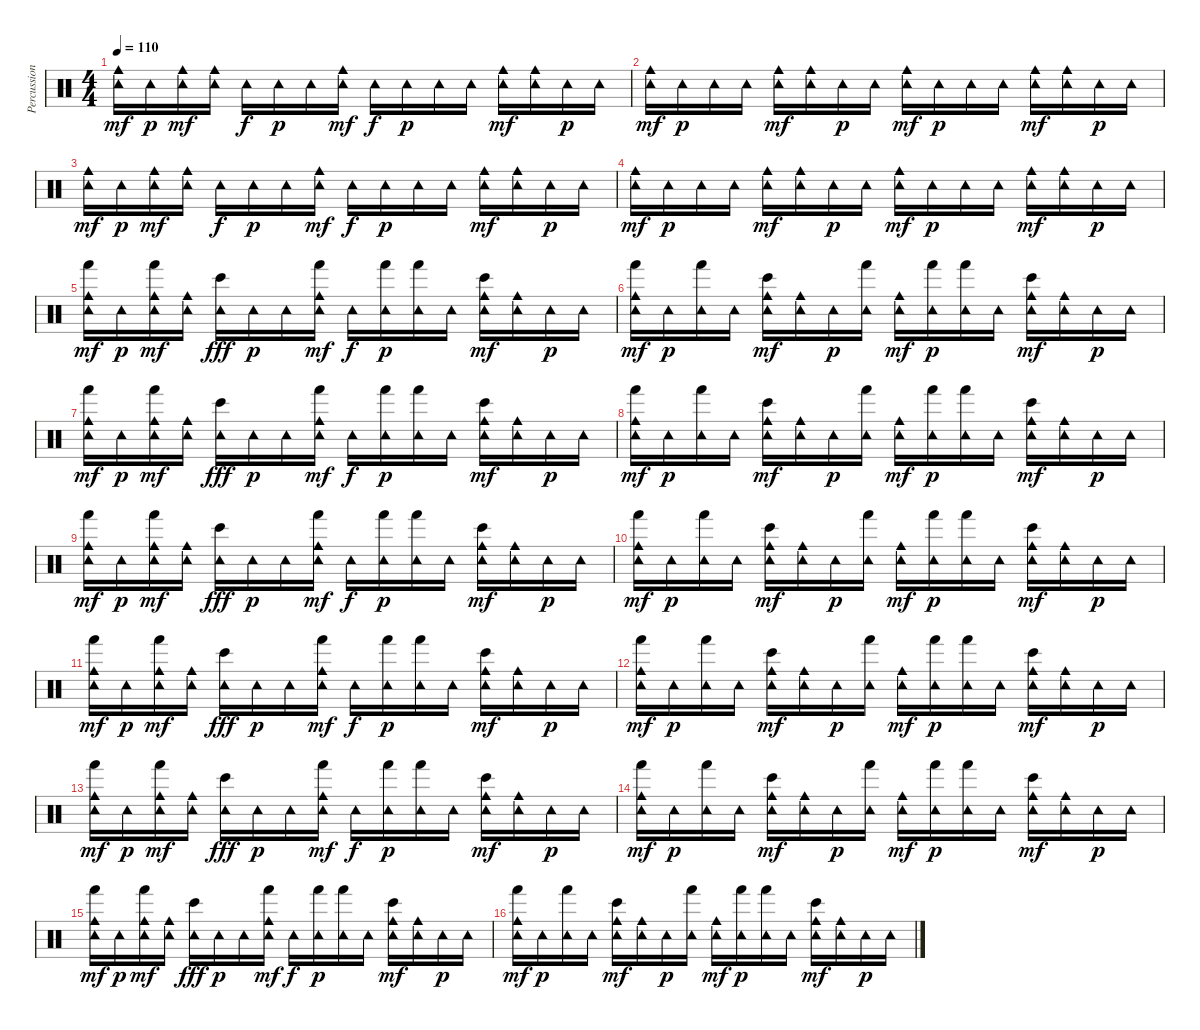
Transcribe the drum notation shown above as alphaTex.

\track ("Percussions" "Percussion") {instrument percussion}
\staff {score}
\articulation defaults
\ts (4 4)
\tempo 110
\clef neutral
\ks c
("Tambourine (hit)" "Cowbell medium (hit)").16{dy mf} "Tambourine (hit)".16{dy p} ("Tambourine (hit)" "Cowbell medium (hit)").16{dy mf} ("Tambourine (hit)" "Cowbell medium (hit)").16 "Tambourine (hit)".16{dy f} "Tambourine (hit)".16{dy p} "Tambourine (hit)".16 ("Tambourine (hit)" "Cowbell medium (hit)").16{dy mf} "Tambourine (hit)".16{dy f} "Tambourine (hit)".16{dy p} "Tambourine (hit)".16 "Tambourine (hit)".16 ("Tambourine (hit)" "Cowbell medium (hit)").16{dy mf} ("Tambourine (hit)" "Cowbell medium (hit)").16 "Tambourine (hit)".16{dy p} "Tambourine (hit)".16 |
("Tambourine (hit)" "Cowbell medium (hit)").16{dy mf} "Tambourine (hit)".16{dy p} "Tambourine (hit)".16 "Tambourine (hit)".16 ("Tambourine (hit)" "Cowbell medium (hit)").16{dy mf} ("Tambourine (hit)" "Cowbell medium (hit)").16 "Tambourine (hit)".16{dy p} "Tambourine (hit)".16 ("Tambourine (hit)" "Cowbell medium (hit)").16{dy mf} "Tambourine (hit)".16{dy p} "Tambourine (hit)".16 "Tambourine (hit)".16 ("Tambourine (hit)" "Cowbell medium (hit)").16{dy mf} ("Tambourine (hit)" "Cowbell medium (hit)").16 "Tambourine (hit)".16{dy p} "Tambourine (hit)".16 |
("Tambourine (hit)" "Cowbell medium (hit)").16{dy mf} "Tambourine (hit)".16{dy p} ("Tambourine (hit)" "Cowbell medium (hit)").16{dy mf} ("Tambourine (hit)" "Cowbell medium (hit)").16 "Tambourine (hit)".16{dy f} "Tambourine (hit)".16{dy p} "Tambourine (hit)".16 ("Tambourine (hit)" "Cowbell medium (hit)").16{dy mf} "Tambourine (hit)".16{dy f} "Tambourine (hit)".16{dy p} "Tambourine (hit)".16 "Tambourine (hit)".16 ("Tambourine (hit)" "Cowbell medium (hit)").16{dy mf} ("Tambourine (hit)" "Cowbell medium (hit)").16 "Tambourine (hit)".16{dy p} "Tambourine (hit)".16 |
("Tambourine (hit)" "Cowbell medium (hit)").16{dy mf} "Tambourine (hit)".16{dy p} "Tambourine (hit)".16 "Tambourine (hit)".16 ("Tambourine (hit)" "Cowbell medium (hit)").16{dy mf} ("Tambourine (hit)" "Cowbell medium (hit)").16 "Tambourine (hit)".16{dy p} "Tambourine (hit)".16 ("Tambourine (hit)" "Cowbell medium (hit)").16{dy mf} "Tambourine (hit)".16{dy p} "Tambourine (hit)".16 "Tambourine (hit)".16 ("Tambourine (hit)" "Cowbell medium (hit)").16{dy mf} ("Tambourine (hit)" "Cowbell medium (hit)").16 "Tambourine (hit)".16{dy p} "Tambourine (hit)".16 |
("Hand (hit)" "Tambourine (hit)" "Cowbell medium (hit)").16{dy mf} "Tambourine (hit)".16{dy p} ("Hand (hit)" "Tambourine (hit)" "Cowbell medium (hit)").16{dy mf} ("Tambourine (hit)" "Cowbell medium (hit)").16 ("Bongo High (hit)" "Tambourine (hit)").16{dy fff} "Tambourine (hit)".16{dy p} "Tambourine (hit)".16 ("Hand (hit)" "Tambourine (hit)" "Cowbell medium (hit)").16{dy mf} "Tambourine (hit)".16{dy f} ("Hand (hit)" "Tambourine (hit)").16{dy p} ("Hand (hit)" "Tambourine (hit)").16 "Tambourine (hit)".16 ("Bongo High (hit)" "Tambourine (hit)" "Cowbell medium (hit)").16{dy mf} ("Tambourine (hit)" "Cowbell medium (hit)").16 "Tambourine (hit)".16{dy p} "Tambourine (hit)".16 |
("Hand (hit)" "Tambourine (hit)" "Cowbell medium (hit)").16{dy mf} "Tambourine (hit)".16{dy p} ("Hand (hit)" "Tambourine (hit)").16 "Tambourine (hit)".16 ("Bongo High (hit)" "Tambourine (hit)" "Cowbell medium (hit)").16{dy mf} ("Tambourine (hit)" "Cowbell medium (hit)").16 "Tambourine (hit)".16{dy p} ("Hand (hit)" "Tambourine (hit)").16 ("Tambourine (hit)" "Cowbell medium (hit)").16{dy mf} ("Hand (hit)" "Tambourine (hit)").16{dy p} ("Hand (hit)" "Tambourine (hit)").16 "Tambourine (hit)".16 ("Bongo High (hit)" "Tambourine (hit)" "Cowbell medium (hit)").16{dy mf} ("Tambourine (hit)" "Cowbell medium (hit)").16 "Tambourine (hit)".16{dy p} "Tambourine (hit)".16 |
("Hand (hit)" "Tambourine (hit)" "Cowbell medium (hit)").16{dy mf} "Tambourine (hit)".16{dy p} ("Hand (hit)" "Tambourine (hit)" "Cowbell medium (hit)").16{dy mf} ("Tambourine (hit)" "Cowbell medium (hit)").16 ("Bongo High (hit)" "Tambourine (hit)").16{dy fff} "Tambourine (hit)".16{dy p} "Tambourine (hit)".16 ("Hand (hit)" "Tambourine (hit)" "Cowbell medium (hit)").16{dy mf} "Tambourine (hit)".16{dy f} ("Hand (hit)" "Tambourine (hit)").16{dy p} ("Hand (hit)" "Tambourine (hit)").16 "Tambourine (hit)".16 ("Bongo High (hit)" "Tambourine (hit)" "Cowbell medium (hit)").16{dy mf} ("Tambourine (hit)" "Cowbell medium (hit)").16 "Tambourine (hit)".16{dy p} "Tambourine (hit)".16 |
("Hand (hit)" "Tambourine (hit)" "Cowbell medium (hit)").16{dy mf} "Tambourine (hit)".16{dy p} ("Hand (hit)" "Tambourine (hit)").16 "Tambourine (hit)".16 ("Bongo High (hit)" "Tambourine (hit)" "Cowbell medium (hit)").16{dy mf} ("Tambourine (hit)" "Cowbell medium (hit)").16 "Tambourine (hit)".16{dy p} ("Hand (hit)" "Tambourine (hit)").16 ("Tambourine (hit)" "Cowbell medium (hit)").16{dy mf} ("Hand (hit)" "Tambourine (hit)").16{dy p} ("Hand (hit)" "Tambourine (hit)").16 "Tambourine (hit)".16 ("Bongo High (hit)" "Tambourine (hit)" "Cowbell medium (hit)").16{dy mf} ("Tambourine (hit)" "Cowbell medium (hit)").16 "Tambourine (hit)".16{dy p} "Tambourine (hit)".16 |
("Hand (hit)" "Tambourine (hit)" "Cowbell medium (hit)").16{dy mf} "Tambourine (hit)".16{dy p} ("Hand (hit)" "Tambourine (hit)" "Cowbell medium (hit)").16{dy mf} ("Tambourine (hit)" "Cowbell medium (hit)").16 ("Bongo High (hit)" "Tambourine (hit)").16{dy fff} "Tambourine (hit)".16{dy p} "Tambourine (hit)".16 ("Hand (hit)" "Tambourine (hit)" "Cowbell medium (hit)").16{dy mf} "Tambourine (hit)".16{dy f} ("Hand (hit)" "Tambourine (hit)").16{dy p} ("Hand (hit)" "Tambourine (hit)").16 "Tambourine (hit)".16 ("Bongo High (hit)" "Tambourine (hit)" "Cowbell medium (hit)").16{dy mf} ("Tambourine (hit)" "Cowbell medium (hit)").16 "Tambourine (hit)".16{dy p} "Tambourine (hit)".16 |
("Hand (hit)" "Tambourine (hit)" "Cowbell medium (hit)").16{dy mf} "Tambourine (hit)".16{dy p} ("Hand (hit)" "Tambourine (hit)").16 "Tambourine (hit)".16 ("Bongo High (hit)" "Tambourine (hit)" "Cowbell medium (hit)").16{dy mf} ("Tambourine (hit)" "Cowbell medium (hit)").16 "Tambourine (hit)".16{dy p} ("Hand (hit)" "Tambourine (hit)").16 ("Tambourine (hit)" "Cowbell medium (hit)").16{dy mf} ("Hand (hit)" "Tambourine (hit)").16{dy p} ("Hand (hit)" "Tambourine (hit)").16 "Tambourine (hit)".16 ("Bongo High (hit)" "Tambourine (hit)" "Cowbell medium (hit)").16{dy mf} ("Tambourine (hit)" "Cowbell medium (hit)").16 "Tambourine (hit)".16{dy p} "Tambourine (hit)".16 |
("Hand (hit)" "Tambourine (hit)" "Cowbell medium (hit)").16{dy mf} "Tambourine (hit)".16{dy p} ("Hand (hit)" "Tambourine (hit)" "Cowbell medium (hit)").16{dy mf} ("Tambourine (hit)" "Cowbell medium (hit)").16 ("Bongo High (hit)" "Tambourine (hit)").16{dy fff} "Tambourine (hit)".16{dy p} "Tambourine (hit)".16 ("Hand (hit)" "Tambourine (hit)" "Cowbell medium (hit)").16{dy mf} "Tambourine (hit)".16{dy f} ("Hand (hit)" "Tambourine (hit)").16{dy p} ("Hand (hit)" "Tambourine (hit)").16 "Tambourine (hit)".16 ("Bongo High (hit)" "Tambourine (hit)" "Cowbell medium (hit)").16{dy mf} ("Tambourine (hit)" "Cowbell medium (hit)").16 "Tambourine (hit)".16{dy p} "Tambourine (hit)".16 |
("Hand (hit)" "Tambourine (hit)" "Cowbell medium (hit)").16{dy mf} "Tambourine (hit)".16{dy p} ("Hand (hit)" "Tambourine (hit)").16 "Tambourine (hit)".16 ("Bongo High (hit)" "Tambourine (hit)" "Cowbell medium (hit)").16{dy mf} ("Tambourine (hit)" "Cowbell medium (hit)").16 "Tambourine (hit)".16{dy p} ("Hand (hit)" "Tambourine (hit)").16 ("Tambourine (hit)" "Cowbell medium (hit)").16{dy mf} ("Hand (hit)" "Tambourine (hit)").16{dy p} ("Hand (hit)" "Tambourine (hit)").16 "Tambourine (hit)".16 ("Bongo High (hit)" "Tambourine (hit)" "Cowbell medium (hit)").16{dy mf} ("Tambourine (hit)" "Cowbell medium (hit)").16 "Tambourine (hit)".16{dy p} "Tambourine (hit)".16 |
("Hand (hit)" "Tambourine (hit)" "Cowbell medium (hit)").16{dy mf} "Tambourine (hit)".16{dy p} ("Hand (hit)" "Tambourine (hit)" "Cowbell medium (hit)").16{dy mf} ("Tambourine (hit)" "Cowbell medium (hit)").16 ("Bongo High (hit)" "Tambourine (hit)").16{dy fff} "Tambourine (hit)".16{dy p} "Tambourine (hit)".16 ("Hand (hit)" "Tambourine (hit)" "Cowbell medium (hit)").16{dy mf} "Tambourine (hit)".16{dy f} ("Hand (hit)" "Tambourine (hit)").16{dy p} ("Hand (hit)" "Tambourine (hit)").16 "Tambourine (hit)".16 ("Bongo High (hit)" "Tambourine (hit)" "Cowbell medium (hit)").16{dy mf} ("Tambourine (hit)" "Cowbell medium (hit)").16 "Tambourine (hit)".16{dy p} "Tambourine (hit)".16 |
("Hand (hit)" "Tambourine (hit)" "Cowbell medium (hit)").16{dy mf} "Tambourine (hit)".16{dy p} ("Hand (hit)" "Tambourine (hit)").16 "Tambourine (hit)".16 ("Bongo High (hit)" "Tambourine (hit)" "Cowbell medium (hit)").16{dy mf} ("Tambourine (hit)" "Cowbell medium (hit)").16 "Tambourine (hit)".16{dy p} ("Hand (hit)" "Tambourine (hit)").16 ("Tambourine (hit)" "Cowbell medium (hit)").16{dy mf} ("Hand (hit)" "Tambourine (hit)").16{dy p} ("Hand (hit)" "Tambourine (hit)").16 "Tambourine (hit)".16 ("Bongo High (hit)" "Tambourine (hit)" "Cowbell medium (hit)").16{dy mf} ("Tambourine (hit)" "Cowbell medium (hit)").16 "Tambourine (hit)".16{dy p} "Tambourine (hit)".16 |
("Hand (hit)" "Tambourine (hit)" "Cowbell medium (hit)").16{dy mf} "Tambourine (hit)".16{dy p} ("Hand (hit)" "Tambourine (hit)" "Cowbell medium (hit)").16{dy mf} ("Tambourine (hit)" "Cowbell medium (hit)").16 ("Bongo High (hit)" "Tambourine (hit)").16{dy fff} "Tambourine (hit)".16{dy p} "Tambourine (hit)".16 ("Hand (hit)" "Tambourine (hit)" "Cowbell medium (hit)").16{dy mf} "Tambourine (hit)".16{dy f} ("Hand (hit)" "Tambourine (hit)").16{dy p} ("Hand (hit)" "Tambourine (hit)").16 "Tambourine (hit)".16 ("Bongo High (hit)" "Tambourine (hit)" "Cowbell medium (hit)").16{dy mf} ("Tambourine (hit)" "Cowbell medium (hit)").16 "Tambourine (hit)".16{dy p} "Tambourine (hit)".16 |
("Hand (hit)" "Tambourine (hit)" "Cowbell medium (hit)").16{dy mf} "Tambourine (hit)".16{dy p} ("Hand (hit)" "Tambourine (hit)").16 "Tambourine (hit)".16 ("Bongo High (hit)" "Tambourine (hit)" "Cowbell medium (hit)").16{dy mf} ("Tambourine (hit)" "Cowbell medium (hit)").16 "Tambourine (hit)".16{dy p} ("Hand (hit)" "Tambourine (hit)").16 ("Tambourine (hit)" "Cowbell medium (hit)").16{dy mf} ("Hand (hit)" "Tambourine (hit)").16{dy p} ("Hand (hit)" "Tambourine (hit)").16 "Tambourine (hit)".16 ("Bongo High (hit)" "Tambourine (hit)" "Cowbell medium (hit)").16{dy mf} ("Tambourine (hit)" "Cowbell medium (hit)").16 "Tambourine (hit)".16{dy p} "Tambourine (hit)".16
